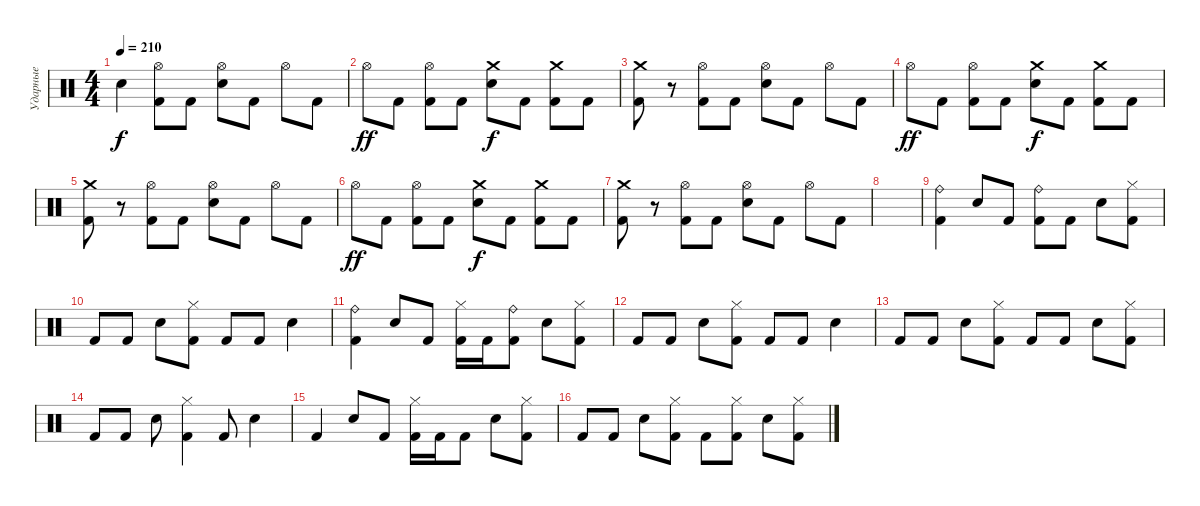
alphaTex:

\track ("Ударные" "Ударные") {instrument percussion}
\staff {score}
\articulation defaults
\ts (4 4)
\tempo 210
\clef neutral
\ks c "Snare (hit)"{t}.4{dy f}
("Hi-Hat (open)" "Kick (hit) 2").8 "Kick (hit) 2".8 ("Hi-Hat (open)" "Snare (hit) 2").8 "Kick (hit) 2".8 "Hi-Hat (open)".8 "Kick (hit) 2".8 |
"Hi-Hat (open)".8{dy ff} "Kick (hit) 2".8 ("Hi-Hat (open)" "Kick (hit) 2").8 "Kick (hit) 2".8 ("Crash medium (hit)" "Snare (hit) 2").8{dy f} "Kick (hit) 2".8 ("Crash medium (hit)" "Kick (hit) 2").8 "Kick (hit) 2".8 |
("Crash medium (hit)" "Kick (hit) 2").8 r.8 ("Hi-Hat (open)" "Kick (hit) 2").8 "Kick (hit) 2".8 ("Hi-Hat (open)" "Snare (hit) 2").8 "Kick (hit) 2".8 "Hi-Hat (open)".8 "Kick (hit) 2".8 |
"Hi-Hat (open)".8{dy ff} "Kick (hit) 2".8 ("Hi-Hat (open)" "Kick (hit) 2").8 "Kick (hit) 2".8 ("Crash medium (hit)" "Snare (hit) 2").8{dy f} "Kick (hit) 2".8 ("Crash medium (hit)" "Kick (hit) 2").8 "Kick (hit) 2".8 |
("Crash medium (hit)" "Kick (hit) 2").8 r.8 ("Hi-Hat (open)" "Kick (hit) 2").8 "Kick (hit) 2".8 ("Hi-Hat (open)" "Snare (hit) 2").8 "Kick (hit) 2".8 "Hi-Hat (open)".8 "Kick (hit) 2".8 |
"Hi-Hat (open)".8{dy ff} "Kick (hit) 2".8 ("Hi-Hat (open)" "Kick (hit) 2").8 "Kick (hit) 2".8 ("Crash medium (hit)" "Snare (hit) 2").8{dy f} "Kick (hit) 2".8 ("Crash medium (hit)" "Kick (hit) 2").8 "Kick (hit) 2".8 |
("Crash medium (hit)" "Kick (hit) 2").8 r.8 ("Hi-Hat (open)" "Kick (hit) 2").8 "Kick (hit) 2".8 ("Hi-Hat (open)" "Snare (hit) 2").8 "Kick (hit) 2".8 "Hi-Hat (open)".8 "Kick (hit) 2".8 |
|
("Ride (bell)" "Kick (hit) 2").4 "Snare (hit) 2".8 "Kick (hit) 2".8 ("Ride (bell)" "Kick (hit) 2").8 "Kick (hit) 2".8 "Snare (hit) 2".8 ("Hi-Hat (closed)" "Kick (hit) 2").8 |
"Kick (hit) 2".8 "Kick (hit) 2".8 "Snare (hit) 2".8 ("Hi-Hat (closed)" "Kick (hit) 2").8 "Kick (hit) 2".8 "Kick (hit) 2".8 "Snare (hit) 2".4 |
("Ride (bell)" "Kick (hit) 2").4 "Snare (hit) 2".8 "Kick (hit) 2".8 ("Hi-Hat (closed)" "Kick (hit) 2").16 "Kick (hit) 2".16 ("Ride (bell)" "Kick (hit) 2").8 "Snare (hit) 2".8 ("Hi-Hat (closed)" "Kick (hit) 2").8 |
"Kick (hit) 2".8 "Kick (hit) 2".8 "Snare (hit) 2".8 ("Hi-Hat (closed)" "Kick (hit) 2").8 "Kick (hit) 2".8 "Kick (hit) 2".8 "Snare (hit) 2".4 |
"Kick (hit) 2".8 "Kick (hit) 2".8 "Snare (hit) 2".8 ("Hi-Hat (closed)" "Kick (hit) 2").8 "Kick (hit) 2".8 "Kick (hit) 2".8 "Snare (hit) 2".8 ("Hi-Hat (closed)" "Kick (hit) 2").8 |
"Kick (hit) 2".8 "Kick (hit) 2".8 "Snare (hit) 2".8 ("Hi-Hat (closed)" "Kick (hit) 2").4 "Kick (hit) 2".8 "Snare (hit) 2".4 |
"Kick (hit) 2".4 "Snare (hit) 2".8 "Kick (hit) 2".8 ("Hi-Hat (closed)" "Kick (hit) 2").16 "Kick (hit) 2".16 "Kick (hit) 2".8 "Snare (hit) 2".8 ("Hi-Hat (closed)" "Kick (hit) 2").8 |
"Kick (hit) 2".8 "Kick (hit) 2".8 "Snare (hit) 2".8 ("Hi-Hat (closed)" "Kick (hit) 2").8 "Kick (hit) 2".8 ("Hi-Hat (closed)" "Kick (hit) 2").8 "Snare (hit) 2".8 ("Hi-Hat (closed)" "Kick (hit) 2").8
